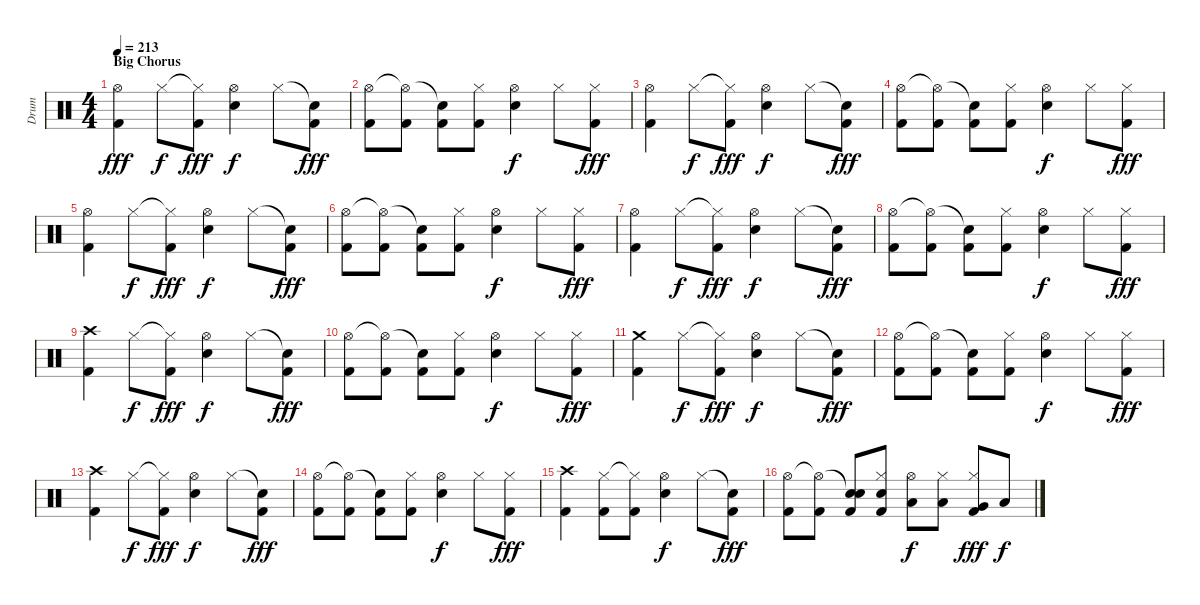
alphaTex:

\track ("Drum" "Drum") {instrument percussion}
\staff {score}
\articulation defaults
\ts (4 4)
\section ("" "Big Chorus")
\tempo 213
\clef neutral
\ks c
("Hi-Hat (open)" "Kick (hit) 2").4{dy fff} "Hi-Hat (closed)".8{dy f} ("Hi-Hat (closed)"{t} "Kick (hit) 2").8{dy fff} ("Hi-Hat (open)" "Snare (hit) 2").4{dy f} "Hi-Hat (closed)".8 ("Snare (hit)"{t} "Kick (hit) 2").8{dy fff} |
("Hi-Hat (open)" "Kick (hit) 2").8 ("Hi-Hat (open)"{t} "Kick (hit) 2").8 ("Snare (hit)"{t} "Kick (hit) 2").8 ("Hi-Hat (closed)" "Kick (hit) 2").8 ("Hi-Hat (open)" "Snare (hit) 2").4{dy f} "Hi-Hat (closed)".8 ("Hi-Hat (closed)" "Kick (hit) 2").8{dy fff} |
("Hi-Hat (open)" "Kick (hit) 2").4 "Hi-Hat (closed)".8{dy f} ("Hi-Hat (closed)"{t} "Kick (hit) 2").8{dy fff} ("Hi-Hat (open)" "Snare (hit) 2").4{dy f} "Hi-Hat (closed)".8 ("Snare (hit)"{t} "Kick (hit) 2").8{dy fff} |
("Hi-Hat (open)" "Kick (hit) 2").8 ("Hi-Hat (open)"{t} "Kick (hit) 2").8 ("Snare (hit)"{t} "Kick (hit) 2").8 ("Hi-Hat (closed)" "Kick (hit) 2").8 ("Hi-Hat (open)" "Snare (hit) 2").4{dy f} "Hi-Hat (closed)".8 ("Hi-Hat (closed)" "Kick (hit) 2").8{dy fff} |
("Hi-Hat (open)" "Kick (hit) 2").4 "Hi-Hat (closed)".8{dy f} ("Hi-Hat (closed)"{t} "Kick (hit) 2").8{dy fff} ("Hi-Hat (open)" "Snare (hit) 2").4{dy f} "Hi-Hat (closed)".8 ("Snare (hit)"{t} "Kick (hit) 2").8{dy fff} |
("Hi-Hat (open)" "Kick (hit) 2").8 ("Hi-Hat (open)"{t} "Kick (hit) 2").8 ("Snare (hit)"{t} "Kick (hit) 2").8 ("Hi-Hat (closed)" "Kick (hit) 2").8 ("Hi-Hat (open)" "Snare (hit) 2").4{dy f} "Hi-Hat (closed)".8 ("Hi-Hat (closed)" "Kick (hit) 2").8{dy fff} |
("Hi-Hat (open)" "Kick (hit) 2").4 "Hi-Hat (closed)".8{dy f} ("Hi-Hat (closed)"{t} "Kick (hit) 2").8{dy fff} ("Hi-Hat (open)" "Snare (hit) 2").4{dy f} "Hi-Hat (closed)".8 ("Snare (hit)"{t} "Kick (hit) 2").8{dy fff} |
("Hi-Hat (open)" "Kick (hit) 2").8 ("Hi-Hat (open)"{t} "Kick (hit) 2").8 ("Snare (hit)"{t} "Kick (hit) 2").8 ("Hi-Hat (closed)" "Kick (hit) 2").8 ("Hi-Hat (open)" "Snare (hit) 2").4{dy f} "Hi-Hat (closed)".8 ("Hi-Hat (closed)" "Kick (hit) 2").8{dy fff} |
("Crash high (hit)" "Kick (hit) 2").4 "Hi-Hat (closed)".8{dy f} ("Hi-Hat (closed)"{t} "Kick (hit) 2").8{dy fff} ("Hi-Hat (open)" "Snare (hit) 2").4{dy f} "Hi-Hat (closed)".8 ("Snare (hit)"{t} "Kick (hit) 2").8{dy fff} |
("Hi-Hat (open)" "Kick (hit) 2").8 ("Hi-Hat (open)"{t} "Kick (hit) 2").8 ("Snare (hit)"{t} "Kick (hit) 2").8 ("Hi-Hat (closed)" "Kick (hit) 2").8 ("Hi-Hat (open)" "Snare (hit) 2").4{dy f} "Hi-Hat (closed)".8 ("Hi-Hat (closed)" "Kick (hit) 2").8{dy fff} |
("Crash medium (hit)" "Kick (hit) 2").4 "Hi-Hat (closed)".8{dy f} ("Hi-Hat (closed)"{t} "Kick (hit) 2").8{dy fff} ("Hi-Hat (open)" "Snare (hit) 2").4{dy f} "Hi-Hat (closed)".8 ("Snare (hit)"{t} "Kick (hit) 2").8{dy fff} |
("Hi-Hat (open)" "Kick (hit) 2").8 ("Hi-Hat (open)"{t} "Kick (hit) 2").8 ("Snare (hit)"{t} "Kick (hit) 2").8 ("Hi-Hat (closed)" "Kick (hit) 2").8 ("Hi-Hat (open)" "Snare (hit) 2").4{dy f} "Hi-Hat (closed)".8 ("Hi-Hat (closed)" "Kick (hit) 2").8{dy fff} |
("Crash high (hit)" "Kick (hit) 2").4 "Hi-Hat (closed)".8{dy f} ("Hi-Hat (closed)"{t} "Kick (hit) 2").8{dy fff} ("Hi-Hat (open)" "Snare (hit) 2").4{dy f} "Hi-Hat (closed)".8 ("Snare (hit)"{t} "Kick (hit) 2").8{dy fff} |
("Hi-Hat (open)" "Kick (hit) 2").8 ("Hi-Hat (open)"{t} "Kick (hit) 2").8 ("Snare (hit)"{t} "Kick (hit) 2").8 ("Hi-Hat (closed)" "Kick (hit) 2").8 ("Hi-Hat (open)" "Snare (hit) 2").4{dy f} "Hi-Hat (closed)".8 ("Hi-Hat (closed)" "Kick (hit) 2").8{dy fff} |
("Crash high (hit)" "Kick (hit) 2").4 ("Hi-Hat (closed)" "Kick (hit) 2").8 ("Hi-Hat (closed)"{t} "Kick (hit) 2").8 ("Hi-Hat (open)" "Snare (hit) 2").4{dy f} "Hi-Hat (closed)".8 ("Snare (hit)"{t} "Kick (hit) 2").8{dy fff} |
("Hi-Hat (open)" "Kick (hit) 2").8 ("Hi-Hat (open)"{t} "Kick (hit) 2").8 ("Snare (hit)"{t} "Snare (hit) 2" "Kick (hit) 2").8 ("Hi-Hat (closed)" "Snare (hit) 2" "Kick (hit) 2").8 ("Hi-Hat (open)" "Low Tom (hit)").8{dy f} ("Hi-Hat (closed)" "Low Tom (hit)").8 ("Hi-Hat (closed)" "Very Low Tom (hit)" "Kick (hit) 2").8{dy fff} "Low Floor Tom (hit)".8{dy f}
